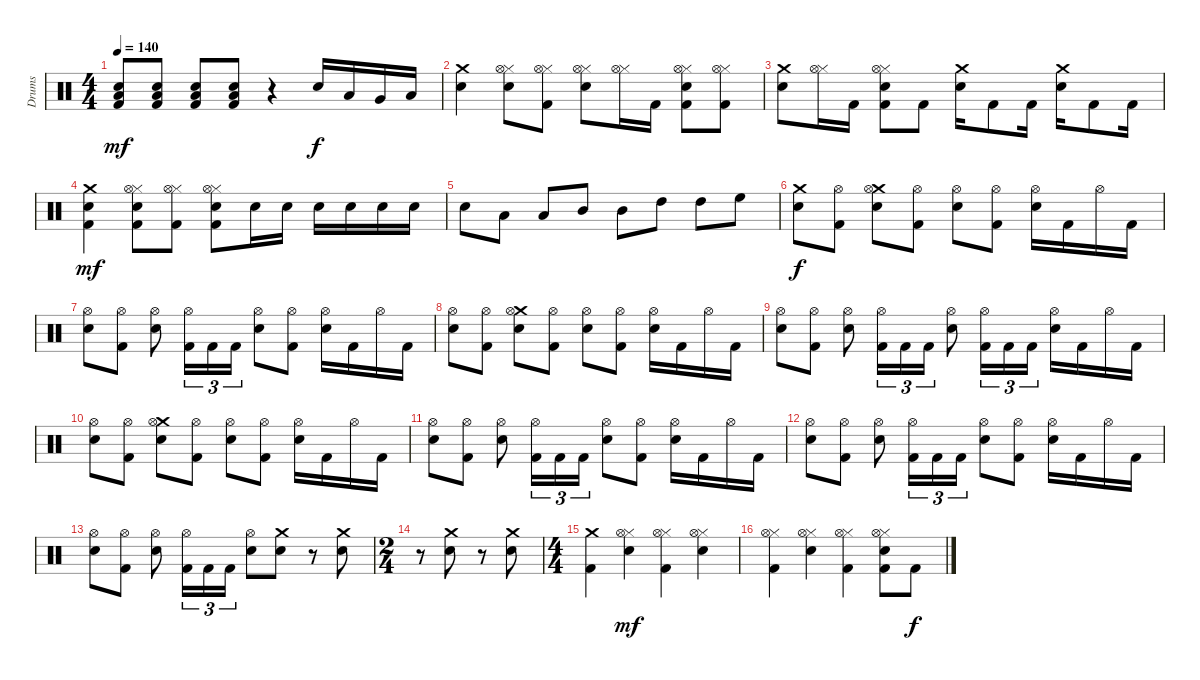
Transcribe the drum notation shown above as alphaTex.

\track ("Drums" "Drums") {instrument percussion}
\staff {score}
\articulation defaults
\ts (4 4)
\tempo 140
\clef neutral
\ks c
("Low Tom (hit)" "Electric Snare (hit)" "Kick (hit) 2").8{dy mf} ("Low Tom (hit)" "Electric Snare (hit)" "Kick (hit) 2").8 ("Low Tom (hit)" "Electric Snare (hit)" "Kick (hit) 2").8 ("Low Tom (hit)" "Electric Snare (hit)" "Kick (hit) 2").8 r.4 "Electric Snare (hit)".16{dy f} "Low Tom (hit)".16 "Very Low Tom (hit)".16 "Low Floor Tom (hit)".16 |
("Crash medium (hit)" "Electric Snare (hit)").4 ("Hi-Hat (closed)" "Hi-Hat (open)" "Electric Snare (hit)").8 ("Hi-Hat (closed)" "Hi-Hat (open)" "Kick (hit) 2").8 ("Hi-Hat (closed)" "Hi-Hat (open)" "Electric Snare (hit)").8 ("Hi-Hat (closed)" "Hi-Hat (open)").16 "Kick (hit) 2".16 ("Hi-Hat (closed)" "Hi-Hat (open)" "Electric Snare (hit)" "Kick (hit) 2").8 ("Hi-Hat (closed)" "Hi-Hat (open)" "Kick (hit) 2").8 |
("Crash medium (hit)" "Electric Snare (hit)").8 ("Hi-Hat (closed)" "Hi-Hat (open)").16 "Kick (hit) 2".16 ("Hi-Hat (closed)" "Hi-Hat (open)" "Electric Snare (hit)" "Kick (hit) 2").8 "Kick (hit) 2".8 ("Crash medium (hit)" "Electric Snare (hit)").16 "Kick (hit) 2".8 "Kick (hit) 2".16 ("Crash medium (hit)" "Electric Snare (hit)").16 "Kick (hit) 2".8 "Kick (hit) 2".16 |
("Crash medium (hit)" "Electric Snare (hit)" "Kick (hit) 2").4{dy mf} ("Hi-Hat (closed)" "Hi-Hat (open)" "Electric Snare (hit)" "Kick (hit) 2").8 ("Hi-Hat (closed)" "Hi-Hat (open)" "Kick (hit) 2").8 ("Hi-Hat (closed)" "Hi-Hat (open)" "Electric Snare (hit)" "Kick (hit) 2").8 "Electric Snare (hit)".16 "Electric Snare (hit)".16 "Electric Snare (hit)".16 "Electric Snare (hit)".16 "Electric Snare (hit)".16 "Electric Snare (hit)".16 |
"Electric Snare (hit)".8 "Low Tom (hit)".8 "Low Tom (hit)".8 "Mid Tom (hit)".8 "Mid Tom (hit)".8 "High Tom (hit)".8 "High Tom (hit)".8 "High Floor Tom (hit)".8 |
("Crash medium (hit)" "Electric Snare (hit)").8{dy f} ("Hi-Hat (open)" "Kick (hit) 2").8 ("Crash medium (hit)" "Hi-Hat (open)" "Electric Snare (hit)").8 ("Hi-Hat (open)" "Kick (hit) 2").8 ("Hi-Hat (open)" "Electric Snare (hit)").8 ("Hi-Hat (open)" "Kick (hit) 2").8 ("Hi-Hat (open)" "Electric Snare (hit)").16 "Kick (hit) 2".16 "Hi-Hat (open)".16 "Kick (hit) 2".16 |
("Hi-Hat (open)" "Electric Snare (hit)").8 ("Hi-Hat (open)" "Kick (hit) 2").8 ("Hi-Hat (open)" "Electric Snare (hit)").8 ("Hi-Hat (open)" "Kick (hit) 2").16{tu (3 2)} "Kick (hit) 2".16{tu (3 2)} "Kick (hit) 2".16{tu (3 2)} ("Hi-Hat (open)" "Electric Snare (hit)").8 ("Hi-Hat (open)" "Kick (hit) 2").8 ("Hi-Hat (open)" "Electric Snare (hit)").16 "Kick (hit) 2".16 "Hi-Hat (open)".16 "Kick (hit) 2".16 |
("Hi-Hat (open)" "Electric Snare (hit)").8 ("Hi-Hat (open)" "Kick (hit) 2").8 ("Crash medium (hit)" "Hi-Hat (open)" "Electric Snare (hit)").8 ("Hi-Hat (open)" "Kick (hit) 2").8 ("Hi-Hat (open)" "Electric Snare (hit)").8 ("Hi-Hat (open)" "Kick (hit) 2").8 ("Hi-Hat (open)" "Electric Snare (hit)").16 "Kick (hit) 2".16 "Hi-Hat (open)".16 "Kick (hit) 2".16 |
("Hi-Hat (open)" "Electric Snare (hit)").8 ("Hi-Hat (open)" "Kick (hit) 2").8 ("Hi-Hat (open)" "Electric Snare (hit)").8 ("Hi-Hat (open)" "Kick (hit) 2").16{tu (3 2)} "Kick (hit) 2".16{tu (3 2)} "Kick (hit) 2".16{tu (3 2)} ("Hi-Hat (open)" "Electric Snare (hit)").8 ("Hi-Hat (open)" "Kick (hit) 2").16{tu (3 2)} "Kick (hit) 2".16{tu (3 2)} "Kick (hit) 2".16{tu (3 2)} ("Hi-Hat (open)" "Electric Snare (hit)").16 "Kick (hit) 2".16 "Hi-Hat (open)".16 "Kick (hit) 2".16 |
("Hi-Hat (open)" "Electric Snare (hit)").8 ("Hi-Hat (open)" "Kick (hit) 2").8 ("Crash medium (hit)" "Hi-Hat (open)" "Electric Snare (hit)").8 ("Hi-Hat (open)" "Kick (hit) 2").8 ("Hi-Hat (open)" "Electric Snare (hit)").8 ("Hi-Hat (open)" "Kick (hit) 2").8 ("Hi-Hat (open)" "Electric Snare (hit)").16 "Kick (hit) 2".16 "Hi-Hat (open)".16 "Kick (hit) 2".16 |
("Hi-Hat (open)" "Electric Snare (hit)").8 ("Hi-Hat (open)" "Kick (hit) 2").8 ("Hi-Hat (open)" "Electric Snare (hit)").8 ("Hi-Hat (open)" "Kick (hit) 2").16{tu (3 2)} "Kick (hit) 2".16{tu (3 2)} "Kick (hit) 2".16{tu (3 2)} ("Hi-Hat (open)" "Electric Snare (hit)").8 ("Hi-Hat (open)" "Kick (hit) 2").8 ("Hi-Hat (open)" "Electric Snare (hit)").16 "Kick (hit) 2".16 "Hi-Hat (open)".16 "Kick (hit) 2".16 |
("Hi-Hat (open)" "Electric Snare (hit)").8 ("Hi-Hat (open)" "Kick (hit) 2").8 ("Hi-Hat (open)" "Electric Snare (hit)").8 ("Hi-Hat (open)" "Kick (hit) 2").16{tu (3 2)} "Kick (hit) 2".16{tu (3 2)} "Kick (hit) 2".16{tu (3 2)} ("Hi-Hat (open)" "Electric Snare (hit)").8 ("Hi-Hat (open)" "Kick (hit) 2").8 ("Hi-Hat (open)" "Electric Snare (hit)").16 "Kick (hit) 2".16 "Hi-Hat (open)".16 "Kick (hit) 2".16 |
("Hi-Hat (open)" "Electric Snare (hit)").8 ("Hi-Hat (open)" "Kick (hit) 2").8 ("Hi-Hat (open)" "Electric Snare (hit)").8 ("Hi-Hat (open)" "Kick (hit) 2").16{tu (3 2)} "Kick (hit) 2".16{tu (3 2)} "Kick (hit) 2".16{tu (3 2)} ("Hi-Hat (open)" "Electric Snare (hit)").8 ("Crash medium (hit)" "Electric Snare (hit)").8 r.8 ("Crash medium (hit)" "Electric Snare (hit)").8 |
\ts (2 4)
r.8 ("Crash medium (hit)" "Electric Snare (hit)").8 r.8 ("Crash medium (hit)" "Electric Snare (hit)").8 |
\ts (4 4)
("Crash medium (hit)" "Kick (hit) 2").4 ("Hi-Hat (closed)" "Hi-Hat (open)" "Electric Snare (hit)").4{dy mf} ("Hi-Hat (closed)" "Hi-Hat (open)" "Kick (hit) 2").4 ("Hi-Hat (closed)" "Hi-Hat (open)" "Electric Snare (hit)").4 |
("Hi-Hat (closed)" "Hi-Hat (open)" "Kick (hit) 2").4 ("Hi-Hat (closed)" "Hi-Hat (open)" "Electric Snare (hit)").4 ("Hi-Hat (closed)" "Hi-Hat (open)" "Kick (hit) 2").4 ("Hi-Hat (closed)" "Hi-Hat (open)" "Electric Snare (hit)" "Kick (hit) 2").8 "Kick (hit) 2".8{dy f}
